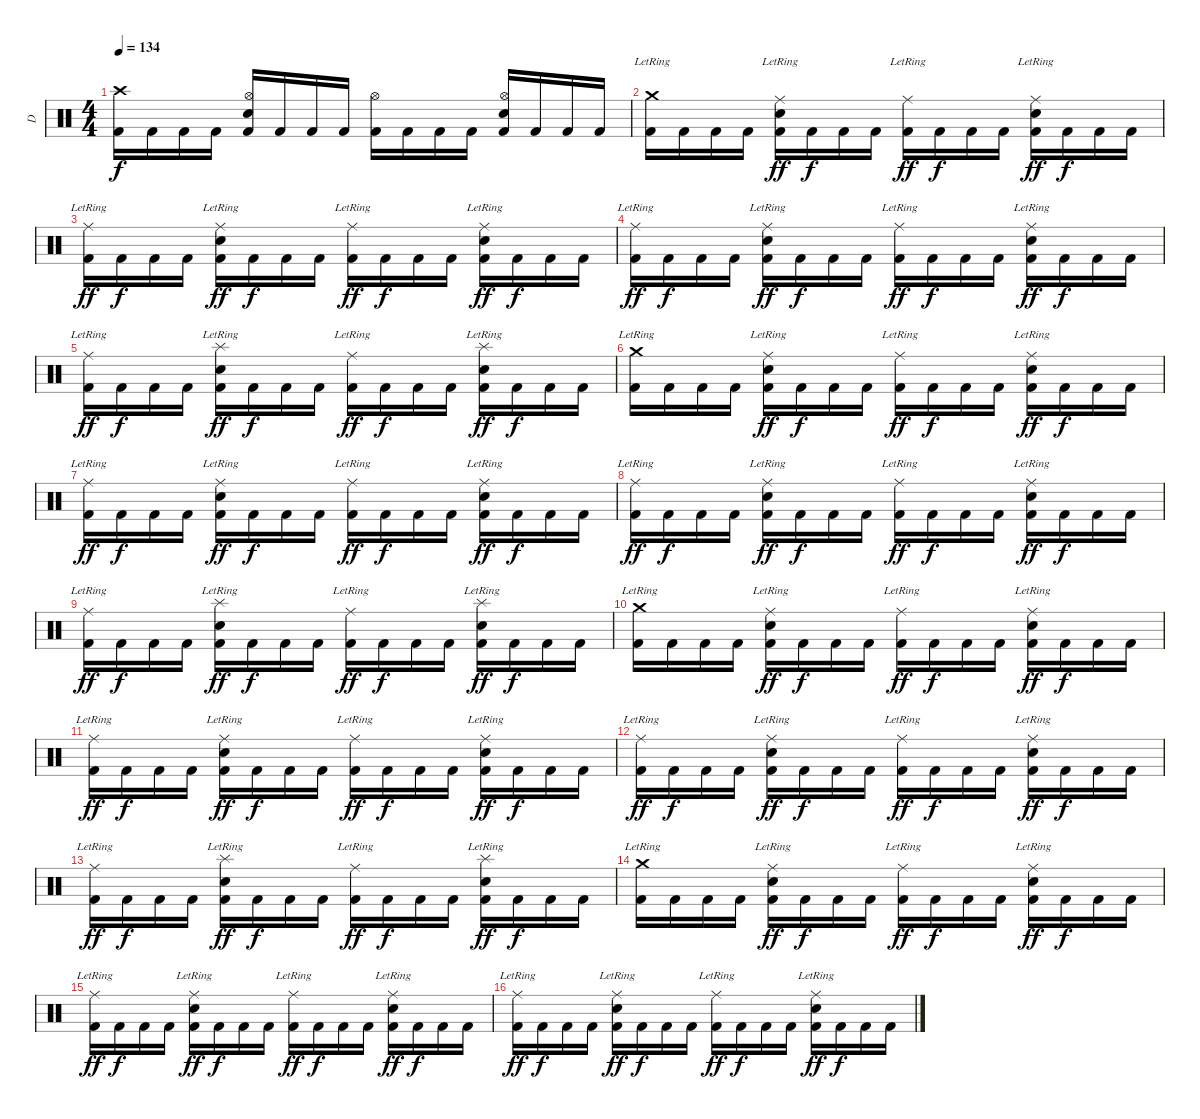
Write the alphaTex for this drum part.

\track ("D" "D") {instrument percussion}
\staff {score}
\articulation defaults
\ts (4 4)
\tempo 134
\clef neutral
\ks c
("Crash high (hit)" "Kick (hit) 2").16{dy f} "Kick (hit) 2".16 "Kick (hit) 2".16 "Kick (hit) 2".16 ("Hi-Hat (open)" "Snare (hit) 2" "Kick (hit) 2").16 "Kick (hit) 2".16 "Kick (hit) 2".16 "Kick (hit) 2".16 ("Hi-Hat (open)" "Kick (hit) 2").16 "Kick (hit) 2".16 "Kick (hit) 2".16 "Kick (hit) 2".16 ("Hi-Hat (open)" "Snare (hit) 2" "Kick (hit) 2").16 "Kick (hit) 2".16 "Kick (hit) 2".16 "Kick (hit) 2".16 |
("Crash medium (hit)"{lr} "Kick (hit) 2").16 "Kick (hit) 2".16 "Kick (hit) 2".16 "Kick (hit) 2".16 ("Ride (middle)"{lr} "Snare (hit) 2" "Kick (hit) 2").16{dy ff} "Kick (hit) 2".16{dy f} "Kick (hit) 2".16 "Kick (hit) 2".16 ("Ride (middle)"{lr} "Kick (hit) 2").16{dy ff} "Kick (hit) 2".16{dy f} "Kick (hit) 2".16 "Kick (hit) 2".16 ("Ride (middle)"{lr} "Snare (hit) 2" "Kick (hit) 2").16{dy ff} "Kick (hit) 2".16{dy f} "Kick (hit) 2".16 "Kick (hit) 2".16 |
("Ride (middle)"{lr} "Kick (hit) 2").16{dy ff} "Kick (hit) 2".16{dy f} "Kick (hit) 2".16 "Kick (hit) 2".16 ("Ride (middle)"{lr} "Snare (hit) 2" "Kick (hit) 2").16{dy ff} "Kick (hit) 2".16{dy f} "Kick (hit) 2".16 "Kick (hit) 2".16 ("Ride (middle)"{lr} "Kick (hit) 2").16{dy ff} "Kick (hit) 2".16{dy f} "Kick (hit) 2".16 "Kick (hit) 2".16 ("Ride (middle)"{lr} "Snare (hit) 2" "Kick (hit) 2").16{dy ff} "Kick (hit) 2".16{dy f} "Kick (hit) 2".16 "Kick (hit) 2".16 |
("Ride (middle)"{lr} "Kick (hit) 2").16{dy ff} "Kick (hit) 2".16{dy f} "Kick (hit) 2".16 "Kick (hit) 2".16 ("Ride (middle)"{lr} "Snare (hit) 2" "Kick (hit) 2").16{dy ff} "Kick (hit) 2".16{dy f} "Kick (hit) 2".16 "Kick (hit) 2".16 ("Ride (middle)"{lr} "Kick (hit) 2").16{dy ff} "Kick (hit) 2".16{dy f} "Kick (hit) 2".16 "Kick (hit) 2".16 ("Ride (middle)"{lr} "Snare (hit) 2" "Kick (hit) 2").16{dy ff} "Kick (hit) 2".16{dy f} "Kick (hit) 2".16 "Kick (hit) 2".16 |
("Ride (middle)"{lr} "Kick (hit) 2").16{dy ff} "Kick (hit) 2".16{dy f} "Kick (hit) 2".16 "Kick (hit) 2".16 ("Snare (hit) 2" "Splash (hit)"{lr} "Kick (hit) 2").16{dy ff} "Kick (hit) 2".16{dy f} "Kick (hit) 2".16 "Kick (hit) 2".16 ("Ride (middle)"{lr} "Kick (hit) 2").16{dy ff} "Kick (hit) 2".16{dy f} "Kick (hit) 2".16 "Kick (hit) 2".16 ("Snare (hit) 2" "Splash (hit)"{lr} "Kick (hit) 2").16{dy ff} "Kick (hit) 2".16{dy f} "Kick (hit) 2".16 "Kick (hit) 2".16 |
("Crash medium (hit)"{lr} "Kick (hit) 2").16 "Kick (hit) 2".16 "Kick (hit) 2".16 "Kick (hit) 2".16 ("Ride (middle)"{lr} "Snare (hit) 2" "Kick (hit) 2").16{dy ff} "Kick (hit) 2".16{dy f} "Kick (hit) 2".16 "Kick (hit) 2".16 ("Ride (middle)"{lr} "Kick (hit) 2").16{dy ff} "Kick (hit) 2".16{dy f} "Kick (hit) 2".16 "Kick (hit) 2".16 ("Ride (middle)"{lr} "Snare (hit) 2" "Kick (hit) 2").16{dy ff} "Kick (hit) 2".16{dy f} "Kick (hit) 2".16 "Kick (hit) 2".16 |
("Ride (middle)"{lr} "Kick (hit) 2").16{dy ff} "Kick (hit) 2".16{dy f} "Kick (hit) 2".16 "Kick (hit) 2".16 ("Ride (middle)"{lr} "Snare (hit) 2" "Kick (hit) 2").16{dy ff} "Kick (hit) 2".16{dy f} "Kick (hit) 2".16 "Kick (hit) 2".16 ("Ride (middle)"{lr} "Kick (hit) 2").16{dy ff} "Kick (hit) 2".16{dy f} "Kick (hit) 2".16 "Kick (hit) 2".16 ("Ride (middle)"{lr} "Snare (hit) 2" "Kick (hit) 2").16{dy ff} "Kick (hit) 2".16{dy f} "Kick (hit) 2".16 "Kick (hit) 2".16 |
("Ride (middle)"{lr} "Kick (hit) 2").16{dy ff} "Kick (hit) 2".16{dy f} "Kick (hit) 2".16 "Kick (hit) 2".16 ("Ride (middle)"{lr} "Snare (hit) 2" "Kick (hit) 2").16{dy ff} "Kick (hit) 2".16{dy f} "Kick (hit) 2".16 "Kick (hit) 2".16 ("Ride (middle)"{lr} "Kick (hit) 2").16{dy ff} "Kick (hit) 2".16{dy f} "Kick (hit) 2".16 "Kick (hit) 2".16 ("Ride (middle)"{lr} "Snare (hit) 2" "Kick (hit) 2").16{dy ff} "Kick (hit) 2".16{dy f} "Kick (hit) 2".16 "Kick (hit) 2".16 |
("Ride (middle)"{lr} "Kick (hit) 2").16{dy ff} "Kick (hit) 2".16{dy f} "Kick (hit) 2".16 "Kick (hit) 2".16 ("Snare (hit) 2" "Splash (hit)"{lr} "Kick (hit) 2").16{dy ff} "Kick (hit) 2".16{dy f} "Kick (hit) 2".16 "Kick (hit) 2".16 ("Ride (middle)"{lr} "Kick (hit) 2").16{dy ff} "Kick (hit) 2".16{dy f} "Kick (hit) 2".16 "Kick (hit) 2".16 ("Snare (hit) 2" "Splash (hit)"{lr} "Kick (hit) 2").16{dy ff} "Kick (hit) 2".16{dy f} "Kick (hit) 2".16 "Kick (hit) 2".16 |
("Crash medium (hit)"{lr} "Kick (hit) 2").16 "Kick (hit) 2".16 "Kick (hit) 2".16 "Kick (hit) 2".16 ("Ride (middle)"{lr} "Snare (hit) 2" "Kick (hit) 2").16{dy ff} "Kick (hit) 2".16{dy f} "Kick (hit) 2".16 "Kick (hit) 2".16 ("Ride (middle)"{lr} "Kick (hit) 2").16{dy ff} "Kick (hit) 2".16{dy f} "Kick (hit) 2".16 "Kick (hit) 2".16 ("Ride (middle)"{lr} "Snare (hit) 2" "Kick (hit) 2").16{dy ff} "Kick (hit) 2".16{dy f} "Kick (hit) 2".16 "Kick (hit) 2".16 |
("Ride (middle)"{lr} "Kick (hit) 2").16{dy ff} "Kick (hit) 2".16{dy f} "Kick (hit) 2".16 "Kick (hit) 2".16 ("Ride (middle)"{lr} "Snare (hit) 2" "Kick (hit) 2").16{dy ff} "Kick (hit) 2".16{dy f} "Kick (hit) 2".16 "Kick (hit) 2".16 ("Ride (middle)"{lr} "Kick (hit) 2").16{dy ff} "Kick (hit) 2".16{dy f} "Kick (hit) 2".16 "Kick (hit) 2".16 ("Ride (middle)"{lr} "Snare (hit) 2" "Kick (hit) 2").16{dy ff} "Kick (hit) 2".16{dy f} "Kick (hit) 2".16 "Kick (hit) 2".16 |
("Ride (middle)"{lr} "Kick (hit) 2").16{dy ff} "Kick (hit) 2".16{dy f} "Kick (hit) 2".16 "Kick (hit) 2".16 ("Ride (middle)"{lr} "Snare (hit) 2" "Kick (hit) 2").16{dy ff} "Kick (hit) 2".16{dy f} "Kick (hit) 2".16 "Kick (hit) 2".16 ("Ride (middle)"{lr} "Kick (hit) 2").16{dy ff} "Kick (hit) 2".16{dy f} "Kick (hit) 2".16 "Kick (hit) 2".16 ("Ride (middle)"{lr} "Snare (hit) 2" "Kick (hit) 2").16{dy ff} "Kick (hit) 2".16{dy f} "Kick (hit) 2".16 "Kick (hit) 2".16 |
("Ride (middle)"{lr} "Kick (hit) 2").16{dy ff} "Kick (hit) 2".16{dy f} "Kick (hit) 2".16 "Kick (hit) 2".16 ("Snare (hit) 2" "Splash (hit)"{lr} "Kick (hit) 2").16{dy ff} "Kick (hit) 2".16{dy f} "Kick (hit) 2".16 "Kick (hit) 2".16 ("Ride (middle)"{lr} "Kick (hit) 2").16{dy ff} "Kick (hit) 2".16{dy f} "Kick (hit) 2".16 "Kick (hit) 2".16 ("Snare (hit) 2" "Splash (hit)"{lr} "Kick (hit) 2").16{dy ff} "Kick (hit) 2".16{dy f} "Kick (hit) 2".16 "Kick (hit) 2".16 |
("Crash medium (hit)"{lr} "Kick (hit) 2").16 "Kick (hit) 2".16 "Kick (hit) 2".16 "Kick (hit) 2".16 ("Ride (middle)"{lr} "Snare (hit) 2" "Kick (hit) 2").16{dy ff} "Kick (hit) 2".16{dy f} "Kick (hit) 2".16 "Kick (hit) 2".16 ("Ride (middle)"{lr} "Kick (hit) 2").16{dy ff} "Kick (hit) 2".16{dy f} "Kick (hit) 2".16 "Kick (hit) 2".16 ("Ride (middle)"{lr} "Snare (hit) 2" "Kick (hit) 2").16{dy ff} "Kick (hit) 2".16{dy f} "Kick (hit) 2".16 "Kick (hit) 2".16 |
("Ride (middle)"{lr} "Kick (hit) 2").16{dy ff} "Kick (hit) 2".16{dy f} "Kick (hit) 2".16 "Kick (hit) 2".16 ("Ride (middle)"{lr} "Snare (hit) 2" "Kick (hit) 2").16{dy ff} "Kick (hit) 2".16{dy f} "Kick (hit) 2".16 "Kick (hit) 2".16 ("Ride (middle)"{lr} "Kick (hit) 2").16{dy ff} "Kick (hit) 2".16{dy f} "Kick (hit) 2".16 "Kick (hit) 2".16 ("Ride (middle)"{lr} "Snare (hit) 2" "Kick (hit) 2").16{dy ff} "Kick (hit) 2".16{dy f} "Kick (hit) 2".16 "Kick (hit) 2".16 |
("Ride (middle)"{lr} "Kick (hit) 2").16{dy ff} "Kick (hit) 2".16{dy f} "Kick (hit) 2".16 "Kick (hit) 2".16 ("Ride (middle)"{lr} "Snare (hit) 2" "Kick (hit) 2").16{dy ff} "Kick (hit) 2".16{dy f} "Kick (hit) 2".16 "Kick (hit) 2".16 ("Ride (middle)"{lr} "Kick (hit) 2").16{dy ff} "Kick (hit) 2".16{dy f} "Kick (hit) 2".16 "Kick (hit) 2".16 ("Ride (middle)"{lr} "Snare (hit) 2" "Kick (hit) 2").16{dy ff} "Kick (hit) 2".16{dy f} "Kick (hit) 2".16 "Kick (hit) 2".16
